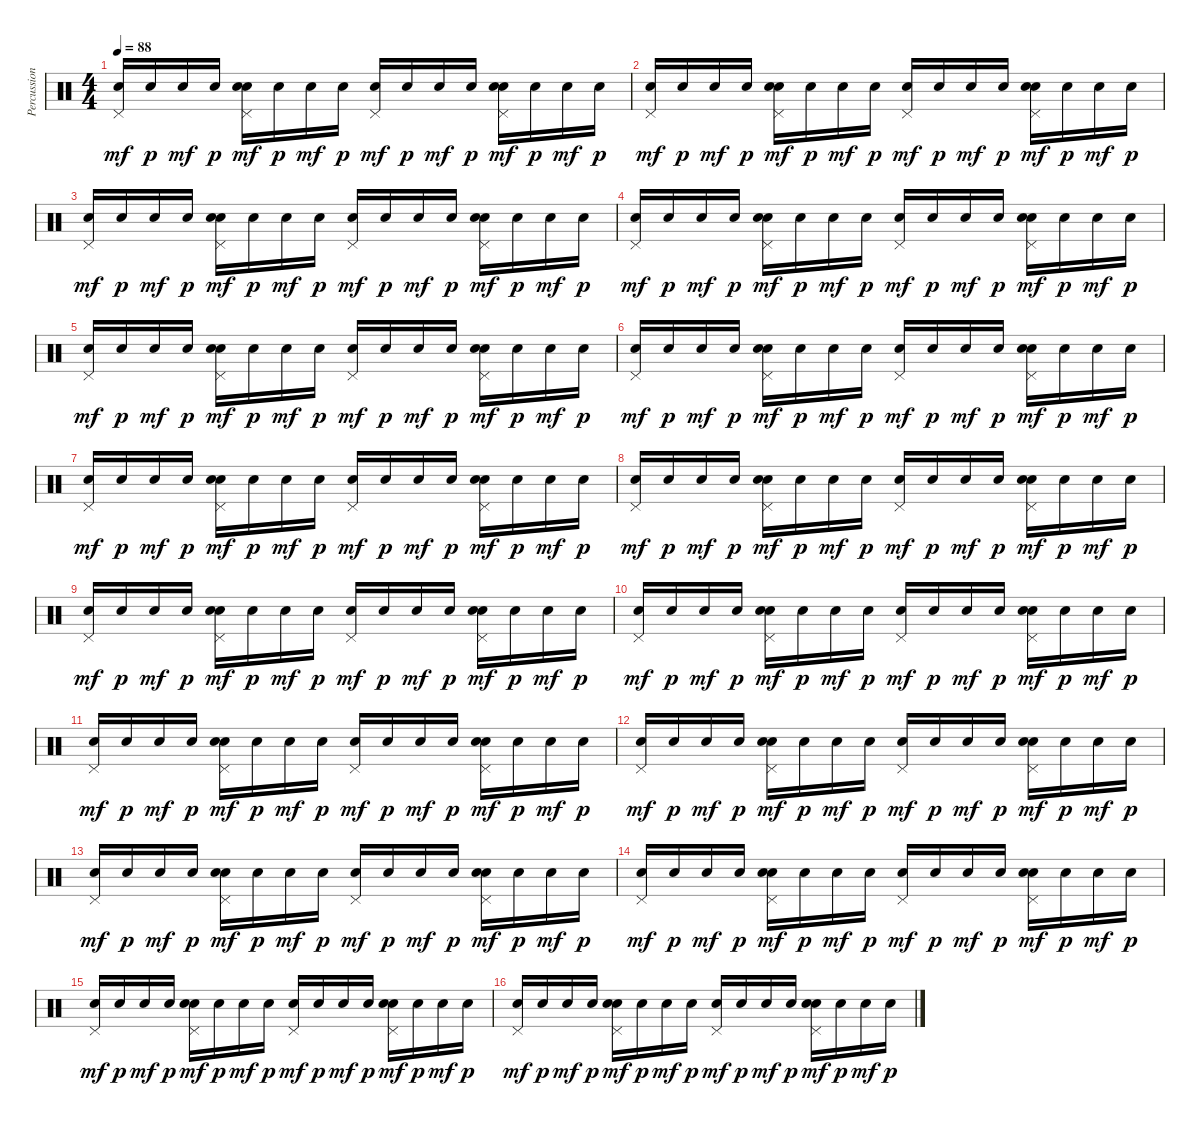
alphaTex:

\track ("Percussion" "Percussion") {instrument percussion}
\staff {score}
\articulation defaults
\ts (4 4)
\tempo 88
\clef neutral
\ks c
("Snare (hit) 2" "Pedal Hi-Hat (hit)").16{dy mf} "Snare (hit) 2".16{dy p} "Snare (hit) 2".16{dy mf} "Snare (hit) 2".16{dy p} ("Hand Clap (hit)" "Snare (hit) 2" "Pedal Hi-Hat (hit)").16{dy mf} "Snare (hit) 2".16{dy p} "Snare (hit) 2".16{dy mf} "Snare (hit) 2".16{dy p} ("Snare (hit) 2" "Pedal Hi-Hat (hit)").16{dy mf} "Snare (hit) 2".16{dy p} "Snare (hit) 2".16{dy mf} "Snare (hit) 2".16{dy p} ("Snare (hit) 2" "Hand Clap (hit)" "Pedal Hi-Hat (hit)").16{dy mf} "Snare (hit) 2".16{dy p} "Snare (hit) 2".16{dy mf} "Snare (hit) 2".16{dy p} |
("Snare (hit) 2" "Pedal Hi-Hat (hit)").16{dy mf} "Snare (hit) 2".16{dy p} "Snare (hit) 2".16{dy mf} "Snare (hit) 2".16{dy p} ("Hand Clap (hit)" "Snare (hit) 2" "Pedal Hi-Hat (hit)").16{dy mf} "Snare (hit) 2".16{dy p} "Snare (hit) 2".16{dy mf} "Snare (hit) 2".16{dy p} ("Snare (hit) 2" "Pedal Hi-Hat (hit)").16{dy mf} "Snare (hit) 2".16{dy p} "Snare (hit) 2".16{dy mf} "Snare (hit) 2".16{dy p} ("Snare (hit) 2" "Hand Clap (hit)" "Pedal Hi-Hat (hit)").16{dy mf} "Snare (hit) 2".16{dy p} "Snare (hit) 2".16{dy mf} "Snare (hit) 2".16{dy p} |
("Snare (hit) 2" "Pedal Hi-Hat (hit)").16{dy mf} "Snare (hit) 2".16{dy p} "Snare (hit) 2".16{dy mf} "Snare (hit) 2".16{dy p} ("Hand Clap (hit)" "Snare (hit) 2" "Pedal Hi-Hat (hit)").16{dy mf} "Snare (hit) 2".16{dy p} "Snare (hit) 2".16{dy mf} "Snare (hit) 2".16{dy p} ("Snare (hit) 2" "Pedal Hi-Hat (hit)").16{dy mf} "Snare (hit) 2".16{dy p} "Snare (hit) 2".16{dy mf} "Snare (hit) 2".16{dy p} ("Snare (hit) 2" "Hand Clap (hit)" "Pedal Hi-Hat (hit)").16{dy mf} "Snare (hit) 2".16{dy p} "Snare (hit) 2".16{dy mf} "Snare (hit) 2".16{dy p} |
("Snare (hit) 2" "Pedal Hi-Hat (hit)").16{dy mf} "Snare (hit) 2".16{dy p} "Snare (hit) 2".16{dy mf} "Snare (hit) 2".16{dy p} ("Hand Clap (hit)" "Snare (hit) 2" "Pedal Hi-Hat (hit)").16{dy mf} "Snare (hit) 2".16{dy p} "Snare (hit) 2".16{dy mf} "Snare (hit) 2".16{dy p} ("Snare (hit) 2" "Pedal Hi-Hat (hit)").16{dy mf} "Snare (hit) 2".16{dy p} "Snare (hit) 2".16{dy mf} "Snare (hit) 2".16{dy p} ("Snare (hit) 2" "Hand Clap (hit)" "Pedal Hi-Hat (hit)").16{dy mf} "Snare (hit) 2".16{dy p} "Snare (hit) 2".16{dy mf} "Snare (hit) 2".16{dy p} |
("Snare (hit) 2" "Pedal Hi-Hat (hit)").16{dy mf} "Snare (hit) 2".16{dy p} "Snare (hit) 2".16{dy mf} "Snare (hit) 2".16{dy p} ("Hand Clap (hit)" "Snare (hit) 2" "Pedal Hi-Hat (hit)").16{dy mf} "Snare (hit) 2".16{dy p} "Snare (hit) 2".16{dy mf} "Snare (hit) 2".16{dy p} ("Snare (hit) 2" "Pedal Hi-Hat (hit)").16{dy mf} "Snare (hit) 2".16{dy p} "Snare (hit) 2".16{dy mf} "Snare (hit) 2".16{dy p} ("Snare (hit) 2" "Hand Clap (hit)" "Pedal Hi-Hat (hit)").16{dy mf} "Snare (hit) 2".16{dy p} "Snare (hit) 2".16{dy mf} "Snare (hit) 2".16{dy p} |
("Snare (hit) 2" "Pedal Hi-Hat (hit)").16{dy mf} "Snare (hit) 2".16{dy p} "Snare (hit) 2".16{dy mf} "Snare (hit) 2".16{dy p} ("Hand Clap (hit)" "Snare (hit) 2" "Pedal Hi-Hat (hit)").16{dy mf} "Snare (hit) 2".16{dy p} "Snare (hit) 2".16{dy mf} "Snare (hit) 2".16{dy p} ("Snare (hit) 2" "Pedal Hi-Hat (hit)").16{dy mf} "Snare (hit) 2".16{dy p} "Snare (hit) 2".16{dy mf} "Snare (hit) 2".16{dy p} ("Snare (hit) 2" "Hand Clap (hit)" "Pedal Hi-Hat (hit)").16{dy mf} "Snare (hit) 2".16{dy p} "Snare (hit) 2".16{dy mf} "Snare (hit) 2".16{dy p} |
("Snare (hit) 2" "Pedal Hi-Hat (hit)").16{dy mf} "Snare (hit) 2".16{dy p} "Snare (hit) 2".16{dy mf} "Snare (hit) 2".16{dy p} ("Hand Clap (hit)" "Snare (hit) 2" "Pedal Hi-Hat (hit)").16{dy mf} "Snare (hit) 2".16{dy p} "Snare (hit) 2".16{dy mf} "Snare (hit) 2".16{dy p} ("Snare (hit) 2" "Pedal Hi-Hat (hit)").16{dy mf} "Snare (hit) 2".16{dy p} "Snare (hit) 2".16{dy mf} "Snare (hit) 2".16{dy p} ("Snare (hit) 2" "Hand Clap (hit)" "Pedal Hi-Hat (hit)").16{dy mf} "Snare (hit) 2".16{dy p} "Snare (hit) 2".16{dy mf} "Snare (hit) 2".16{dy p} |
("Snare (hit) 2" "Pedal Hi-Hat (hit)").16{dy mf} "Snare (hit) 2".16{dy p} "Snare (hit) 2".16{dy mf} "Snare (hit) 2".16{dy p} ("Hand Clap (hit)" "Snare (hit) 2" "Pedal Hi-Hat (hit)").16{dy mf} "Snare (hit) 2".16{dy p} "Snare (hit) 2".16{dy mf} "Snare (hit) 2".16{dy p} ("Snare (hit) 2" "Pedal Hi-Hat (hit)").16{dy mf} "Snare (hit) 2".16{dy p} "Snare (hit) 2".16{dy mf} "Snare (hit) 2".16{dy p} ("Snare (hit) 2" "Hand Clap (hit)" "Pedal Hi-Hat (hit)").16{dy mf} "Snare (hit) 2".16{dy p} "Snare (hit) 2".16{dy mf} "Snare (hit) 2".16{dy p} |
("Snare (hit) 2" "Pedal Hi-Hat (hit)").16{dy mf} "Snare (hit) 2".16{dy p} "Snare (hit) 2".16{dy mf} "Snare (hit) 2".16{dy p} ("Hand Clap (hit)" "Snare (hit) 2" "Pedal Hi-Hat (hit)").16{dy mf} "Snare (hit) 2".16{dy p} "Snare (hit) 2".16{dy mf} "Snare (hit) 2".16{dy p} ("Snare (hit) 2" "Pedal Hi-Hat (hit)").16{dy mf} "Snare (hit) 2".16{dy p} "Snare (hit) 2".16{dy mf} "Snare (hit) 2".16{dy p} ("Snare (hit) 2" "Hand Clap (hit)" "Pedal Hi-Hat (hit)").16{dy mf} "Snare (hit) 2".16{dy p} "Snare (hit) 2".16{dy mf} "Snare (hit) 2".16{dy p} |
("Snare (hit) 2" "Pedal Hi-Hat (hit)").16{dy mf} "Snare (hit) 2".16{dy p} "Snare (hit) 2".16{dy mf} "Snare (hit) 2".16{dy p} ("Hand Clap (hit)" "Snare (hit) 2" "Pedal Hi-Hat (hit)").16{dy mf} "Snare (hit) 2".16{dy p} "Snare (hit) 2".16{dy mf} "Snare (hit) 2".16{dy p} ("Snare (hit) 2" "Pedal Hi-Hat (hit)").16{dy mf} "Snare (hit) 2".16{dy p} "Snare (hit) 2".16{dy mf} "Snare (hit) 2".16{dy p} ("Snare (hit) 2" "Hand Clap (hit)" "Pedal Hi-Hat (hit)").16{dy mf} "Snare (hit) 2".16{dy p} "Snare (hit) 2".16{dy mf} "Snare (hit) 2".16{dy p} |
("Snare (hit) 2" "Pedal Hi-Hat (hit)").16{dy mf} "Snare (hit) 2".16{dy p} "Snare (hit) 2".16{dy mf} "Snare (hit) 2".16{dy p} ("Hand Clap (hit)" "Snare (hit) 2" "Pedal Hi-Hat (hit)").16{dy mf} "Snare (hit) 2".16{dy p} "Snare (hit) 2".16{dy mf} "Snare (hit) 2".16{dy p} ("Snare (hit) 2" "Pedal Hi-Hat (hit)").16{dy mf} "Snare (hit) 2".16{dy p} "Snare (hit) 2".16{dy mf} "Snare (hit) 2".16{dy p} ("Snare (hit) 2" "Hand Clap (hit)" "Pedal Hi-Hat (hit)").16{dy mf} "Snare (hit) 2".16{dy p} "Snare (hit) 2".16{dy mf} "Snare (hit) 2".16{dy p} |
("Snare (hit) 2" "Pedal Hi-Hat (hit)").16{dy mf} "Snare (hit) 2".16{dy p} "Snare (hit) 2".16{dy mf} "Snare (hit) 2".16{dy p} ("Hand Clap (hit)" "Snare (hit) 2" "Pedal Hi-Hat (hit)").16{dy mf} "Snare (hit) 2".16{dy p} "Snare (hit) 2".16{dy mf} "Snare (hit) 2".16{dy p} ("Snare (hit) 2" "Pedal Hi-Hat (hit)").16{dy mf} "Snare (hit) 2".16{dy p} "Snare (hit) 2".16{dy mf} "Snare (hit) 2".16{dy p} ("Snare (hit) 2" "Hand Clap (hit)" "Pedal Hi-Hat (hit)").16{dy mf} "Snare (hit) 2".16{dy p} "Snare (hit) 2".16{dy mf} "Snare (hit) 2".16{dy p} |
("Snare (hit) 2" "Pedal Hi-Hat (hit)").16{dy mf} "Snare (hit) 2".16{dy p} "Snare (hit) 2".16{dy mf} "Snare (hit) 2".16{dy p} ("Hand Clap (hit)" "Snare (hit) 2" "Pedal Hi-Hat (hit)").16{dy mf} "Snare (hit) 2".16{dy p} "Snare (hit) 2".16{dy mf} "Snare (hit) 2".16{dy p} ("Snare (hit) 2" "Pedal Hi-Hat (hit)").16{dy mf} "Snare (hit) 2".16{dy p} "Snare (hit) 2".16{dy mf} "Snare (hit) 2".16{dy p} ("Snare (hit) 2" "Hand Clap (hit)" "Pedal Hi-Hat (hit)").16{dy mf} "Snare (hit) 2".16{dy p} "Snare (hit) 2".16{dy mf} "Snare (hit) 2".16{dy p} |
("Snare (hit) 2" "Pedal Hi-Hat (hit)").16{dy mf} "Snare (hit) 2".16{dy p} "Snare (hit) 2".16{dy mf} "Snare (hit) 2".16{dy p} ("Hand Clap (hit)" "Snare (hit) 2" "Pedal Hi-Hat (hit)").16{dy mf} "Snare (hit) 2".16{dy p} "Snare (hit) 2".16{dy mf} "Snare (hit) 2".16{dy p} ("Snare (hit) 2" "Pedal Hi-Hat (hit)").16{dy mf} "Snare (hit) 2".16{dy p} "Snare (hit) 2".16{dy mf} "Snare (hit) 2".16{dy p} ("Snare (hit) 2" "Hand Clap (hit)" "Pedal Hi-Hat (hit)").16{dy mf} "Snare (hit) 2".16{dy p} "Snare (hit) 2".16{dy mf} "Snare (hit) 2".16{dy p} |
("Snare (hit) 2" "Pedal Hi-Hat (hit)").16{dy mf} "Snare (hit) 2".16{dy p} "Snare (hit) 2".16{dy mf} "Snare (hit) 2".16{dy p} ("Hand Clap (hit)" "Snare (hit) 2" "Pedal Hi-Hat (hit)").16{dy mf} "Snare (hit) 2".16{dy p} "Snare (hit) 2".16{dy mf} "Snare (hit) 2".16{dy p} ("Snare (hit) 2" "Pedal Hi-Hat (hit)").16{dy mf} "Snare (hit) 2".16{dy p} "Snare (hit) 2".16{dy mf} "Snare (hit) 2".16{dy p} ("Snare (hit) 2" "Hand Clap (hit)" "Pedal Hi-Hat (hit)").16{dy mf} "Snare (hit) 2".16{dy p} "Snare (hit) 2".16{dy mf} "Snare (hit) 2".16{dy p} |
("Snare (hit) 2" "Pedal Hi-Hat (hit)").16{dy mf} "Snare (hit) 2".16{dy p} "Snare (hit) 2".16{dy mf} "Snare (hit) 2".16{dy p} ("Hand Clap (hit)" "Snare (hit) 2" "Pedal Hi-Hat (hit)").16{dy mf} "Snare (hit) 2".16{dy p} "Snare (hit) 2".16{dy mf} "Snare (hit) 2".16{dy p} ("Snare (hit) 2" "Pedal Hi-Hat (hit)").16{dy mf} "Snare (hit) 2".16{dy p} "Snare (hit) 2".16{dy mf} "Snare (hit) 2".16{dy p} ("Snare (hit) 2" "Hand Clap (hit)" "Pedal Hi-Hat (hit)").16{dy mf} "Snare (hit) 2".16{dy p} "Snare (hit) 2".16{dy mf} "Snare (hit) 2".16{dy p}
